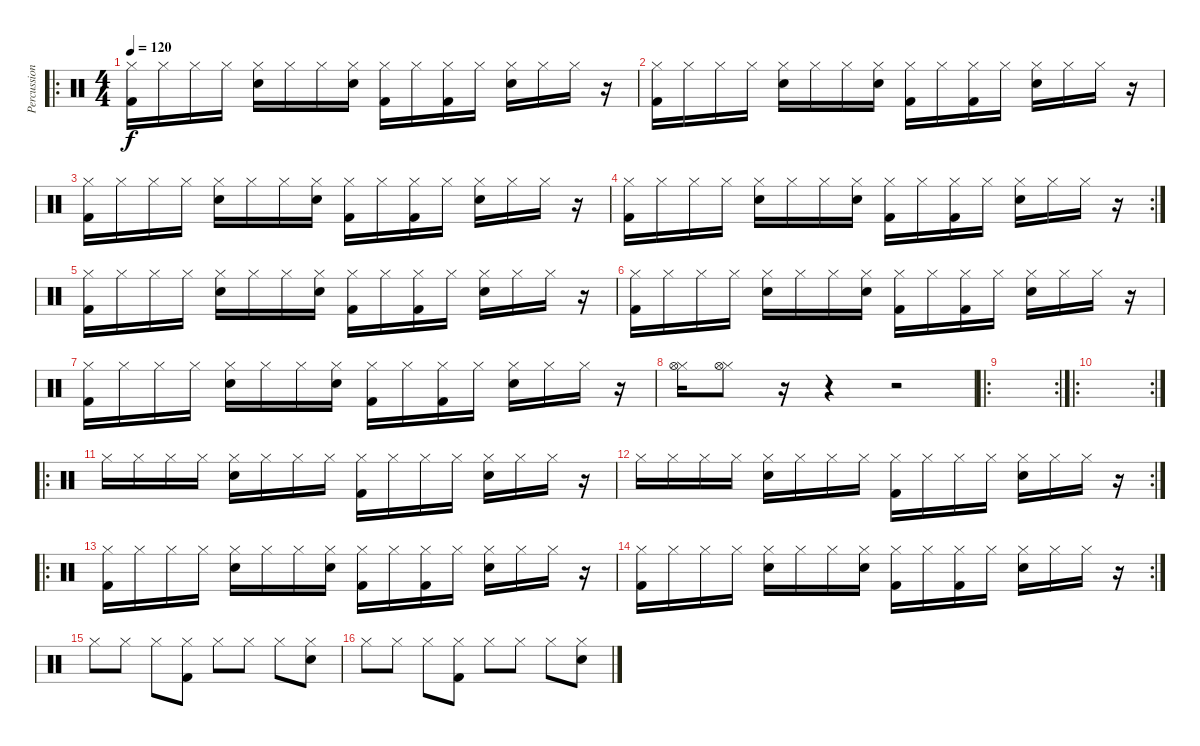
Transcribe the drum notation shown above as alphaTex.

\track ("Percussion" "Percussion") {instrument percussion}
\staff {score}
\articulation defaults
\ro
\ts (4 4)
\tempo 120
\clef neutral
\ks c
("Hi-Hat (closed)" "Kick (hit) 2").16{dy f} "Hi-Hat (closed)".16 "Hi-Hat (closed)".16 "Hi-Hat (closed)".16 ("Hi-Hat (closed)" "Snare (hit) 2").16 "Hi-Hat (closed)".16 "Hi-Hat (closed)".16 ("Hi-Hat (closed)" "Snare (hit) 2").16 ("Hi-Hat (closed)" "Kick (hit) 2").16 "Hi-Hat (closed)".16 ("Hi-Hat (closed)" "Kick (hit) 2").16 "Hi-Hat (closed)".16 ("Hi-Hat (closed)" "Snare (hit) 2").16 "Hi-Hat (closed)".16 "Hi-Hat (closed)".16 r.16 |
("Hi-Hat (closed)" "Kick (hit) 2").16 "Hi-Hat (closed)".16 "Hi-Hat (closed)".16 "Hi-Hat (closed)".16 ("Hi-Hat (closed)" "Snare (hit) 2").16 "Hi-Hat (closed)".16 "Hi-Hat (closed)".16 ("Hi-Hat (closed)" "Snare (hit) 2").16 ("Hi-Hat (closed)" "Kick (hit) 2").16 "Hi-Hat (closed)".16 ("Hi-Hat (closed)" "Kick (hit) 2").16 "Hi-Hat (closed)".16 ("Hi-Hat (closed)" "Snare (hit) 2").16 "Hi-Hat (closed)".16 "Hi-Hat (closed)".16 r.16 |
("Hi-Hat (closed)" "Kick (hit) 2").16 "Hi-Hat (closed)".16 "Hi-Hat (closed)".16 "Hi-Hat (closed)".16 ("Hi-Hat (closed)" "Snare (hit) 2").16 "Hi-Hat (closed)".16 "Hi-Hat (closed)".16 ("Hi-Hat (closed)" "Snare (hit) 2").16 ("Hi-Hat (closed)" "Kick (hit) 2").16 "Hi-Hat (closed)".16 ("Hi-Hat (closed)" "Kick (hit) 2").16 "Hi-Hat (closed)".16 ("Hi-Hat (closed)" "Snare (hit) 2").16 "Hi-Hat (closed)".16 "Hi-Hat (closed)".16 r.16 |
\rc 2
("Hi-Hat (closed)" "Kick (hit) 2").16 "Hi-Hat (closed)".16 "Hi-Hat (closed)".16 "Hi-Hat (closed)".16 ("Hi-Hat (closed)" "Snare (hit) 2").16 "Hi-Hat (closed)".16 "Hi-Hat (closed)".16 ("Hi-Hat (closed)" "Snare (hit) 2").16 ("Hi-Hat (closed)" "Kick (hit) 2").16 "Hi-Hat (closed)".16 ("Hi-Hat (closed)" "Kick (hit) 2").16 "Hi-Hat (closed)".16 ("Hi-Hat (closed)" "Snare (hit) 2").16 "Hi-Hat (closed)".16 "Hi-Hat (closed)".16 r.16 |
("Hi-Hat (closed)" "Kick (hit) 2").16 "Hi-Hat (closed)".16 "Hi-Hat (closed)".16 "Hi-Hat (closed)".16 ("Hi-Hat (closed)" "Snare (hit) 2").16 "Hi-Hat (closed)".16 "Hi-Hat (closed)".16 ("Hi-Hat (closed)" "Snare (hit) 2").16 ("Hi-Hat (closed)" "Kick (hit) 2").16 "Hi-Hat (closed)".16 ("Hi-Hat (closed)" "Kick (hit) 2").16 "Hi-Hat (closed)".16 ("Hi-Hat (closed)" "Snare (hit) 2").16 "Hi-Hat (closed)".16 "Hi-Hat (closed)".16 r.16 |
("Hi-Hat (closed)" "Kick (hit) 2").16 "Hi-Hat (closed)".16 "Hi-Hat (closed)".16 "Hi-Hat (closed)".16 ("Hi-Hat (closed)" "Snare (hit) 2").16 "Hi-Hat (closed)".16 "Hi-Hat (closed)".16 ("Hi-Hat (closed)" "Snare (hit) 2").16 ("Hi-Hat (closed)" "Kick (hit) 2").16 "Hi-Hat (closed)".16 ("Hi-Hat (closed)" "Kick (hit) 2").16 "Hi-Hat (closed)".16 ("Hi-Hat (closed)" "Snare (hit) 2").16 "Hi-Hat (closed)".16 "Hi-Hat (closed)".16 r.16 |
("Hi-Hat (closed)" "Kick (hit) 2").16 "Hi-Hat (closed)".16 "Hi-Hat (closed)".16 "Hi-Hat (closed)".16 ("Hi-Hat (closed)" "Snare (hit) 2").16 "Hi-Hat (closed)".16 "Hi-Hat (closed)".16 ("Hi-Hat (closed)" "Snare (hit) 2").16 ("Hi-Hat (closed)" "Kick (hit) 2").16 "Hi-Hat (closed)".16 ("Hi-Hat (closed)" "Kick (hit) 2").16 "Hi-Hat (closed)".16 ("Hi-Hat (closed)" "Snare (hit) 2").16 "Hi-Hat (closed)".16 "Hi-Hat (closed)".16 r.16 |
("Hi-Hat (closed)" "Hi-Hat (open)").16 ("Hi-Hat (closed)" "Hi-Hat (open)").8 r.16 r.4 r.2 |
\ro
\rc 2
|
\ro
\rc 2
|
\ro "Hi-Hat (closed)".16 "Hi-Hat (closed)".16 "Hi-Hat (closed)".16 "Hi-Hat (closed)".16
("Hi-Hat (closed)" "Snare (hit) 2").16 "Hi-Hat (closed)".16 "Hi-Hat (closed)".16 "Hi-Hat (closed)".16 ("Hi-Hat (closed)" "Kick (hit) 2").16 "Hi-Hat (closed)".16 "Hi-Hat (closed)".16 "Hi-Hat (closed)".16 ("Hi-Hat (closed)" "Snare (hit) 2").16 "Hi-Hat (closed)".16 "Hi-Hat (closed)".16 r.16 |
\rc 2 "Hi-Hat (closed)".16 "Hi-Hat (closed)".16 "Hi-Hat (closed)".16 "Hi-Hat (closed)".16
("Hi-Hat (closed)" "Snare (hit) 2").16 "Hi-Hat (closed)".16 "Hi-Hat (closed)".16 "Hi-Hat (closed)".16 ("Hi-Hat (closed)" "Kick (hit) 2").16 "Hi-Hat (closed)".16 "Hi-Hat (closed)".16 "Hi-Hat (closed)".16 ("Hi-Hat (closed)" "Snare (hit) 2").16 "Hi-Hat (closed)".16 "Hi-Hat (closed)".16 r.16 |
\ro
("Hi-Hat (closed)" "Kick (hit) 2").16 "Hi-Hat (closed)".16 "Hi-Hat (closed)".16 "Hi-Hat (closed)".16 ("Hi-Hat (closed)" "Snare (hit) 2").16 "Hi-Hat (closed)".16 "Hi-Hat (closed)".16 ("Hi-Hat (closed)" "Snare (hit) 2").16 ("Hi-Hat (closed)" "Kick (hit) 2").16 "Hi-Hat (closed)".16 ("Hi-Hat (closed)" "Kick (hit) 2").16 "Hi-Hat (closed)".16 ("Hi-Hat (closed)" "Snare (hit) 2").16 "Hi-Hat (closed)".16 "Hi-Hat (closed)".16 r.16 |
\rc 2
("Hi-Hat (closed)" "Kick (hit) 2").16 "Hi-Hat (closed)".16 "Hi-Hat (closed)".16 "Hi-Hat (closed)".16 ("Hi-Hat (closed)" "Snare (hit) 2").16 "Hi-Hat (closed)".16 "Hi-Hat (closed)".16 ("Hi-Hat (closed)" "Snare (hit) 2").16 ("Hi-Hat (closed)" "Kick (hit) 2").16 "Hi-Hat (closed)".16 ("Hi-Hat (closed)" "Kick (hit) 2").16 "Hi-Hat (closed)".16 ("Hi-Hat (closed)" "Snare (hit) 2").16 "Hi-Hat (closed)".16 "Hi-Hat (closed)".16 r.16 |
"Hi-Hat (closed)".8 "Hi-Hat (closed)".8 "Hi-Hat (closed)".8 ("Hi-Hat (closed)" "Kick (hit) 2").8 "Hi-Hat (closed)".8 "Hi-Hat (closed)".8 "Hi-Hat (closed)".8 ("Hi-Hat (closed)" "Snare (hit) 2").8 |
"Hi-Hat (closed)".8 "Hi-Hat (closed)".8 "Hi-Hat (closed)".8 ("Hi-Hat (closed)" "Kick (hit) 2").8 "Hi-Hat (closed)".8 "Hi-Hat (closed)".8 "Hi-Hat (closed)".8 ("Hi-Hat (closed)" "Snare (hit) 2").8
